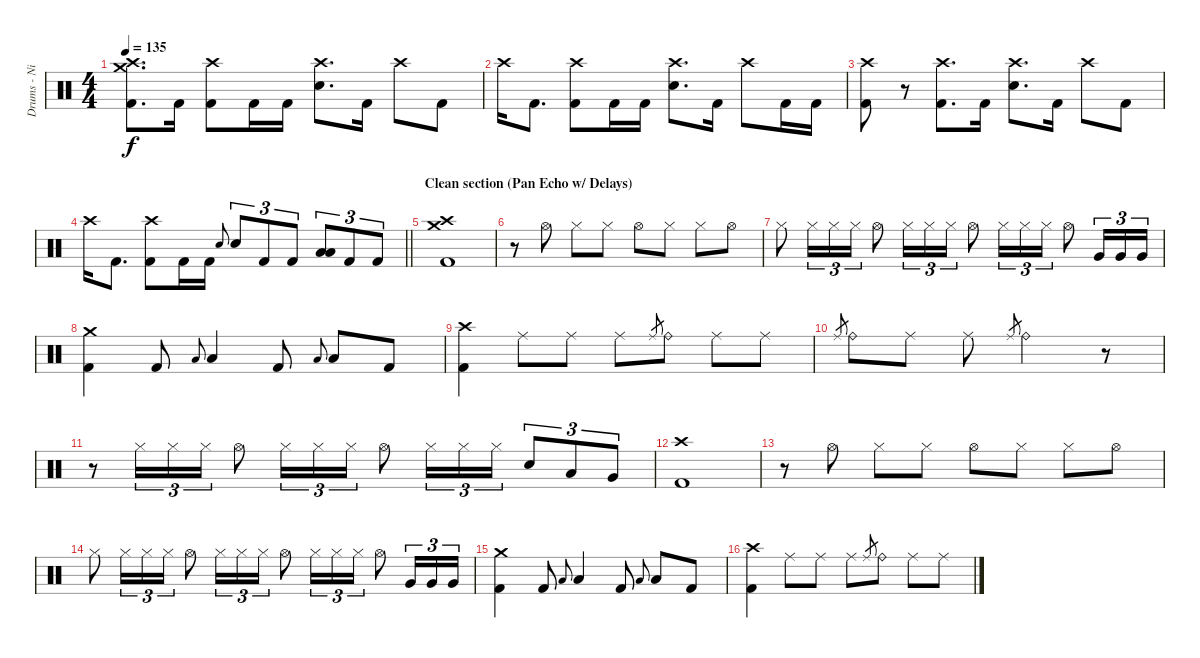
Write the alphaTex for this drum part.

\track ("Drums - Nic" "Drums - Ni") {instrument percussion}
\staff {score}
\articulation defaults
\ts (4 4)
\tempo 135
\clef neutral
\ks c
("Crash high (hit)" "Crash medium (hit)" "Kick (hit) 2").8{d dy f} "Kick (hit) 2".16 ("Crash high (hit)" "Kick (hit) 2").8 "Kick (hit) 2".16 "Kick (hit) 2".16 ("Crash high (hit)" "Electric Snare (hit)").8{d} "Kick (hit) 2".16 "Crash high (hit)".8 "Kick (hit) 2".8 |
"Crash high (hit)".16 "Kick (hit) 2".8{d} ("Crash high (hit)" "Kick (hit) 2").8 "Kick (hit) 2".16 "Kick (hit) 2".16 ("Crash high (hit)" "Electric Snare (hit)").8{d} "Kick (hit) 2".16 "Crash high (hit)".8 "Kick (hit) 2".16 "Kick (hit) 2".16 |
("Crash high (hit)" "Kick (hit) 2").8 r.8{volume 0} ("Crash high (hit)" "Kick (hit) 2").8{d volume 16} "Kick (hit) 2".16 ("Crash high (hit)" "Electric Snare (hit)").8{d} "Kick (hit) 2".16 "Crash high (hit)".8 "Kick (hit) 2".8 |
\barLineRight lightlight "Crash high (hit)".16 "Kick (hit) 2".8{d}
("Crash high (hit)" "Kick (hit) 2").8 "Kick (hit) 2".16 "Kick (hit) 2".16 "Electric Snare (hit)".8{gr onbeat} "Electric Snare (hit)".8{tu (3 2)} "Kick (hit) 2".8{tu (3 2)} "Kick (hit) 2".8{tu (3 2)} ("Low Tom (hit)" "Low Floor Tom (hit)").8{tu (3 2)} "Kick (hit) 2".8{tu (3 2)} "Kick (hit) 2".8{tu (3 2)} |
\section ("" "Clean section (Pan Echo w/ Delays)")
("Crash medium (hit)" "Crash high (hit)" "Kick (hit) 2").1 |
r.8 "Hi-Hat (open)".8 "Hi-Hat (closed)".8 "Hi-Hat (closed)".8 "Hi-Hat (open)".8 "Hi-Hat (closed)".8 "Hi-Hat (closed)".8 "Hi-Hat (open)".8 |
"Hi-Hat (closed)".8 "Hi-Hat (closed)".16{tu (3 2)} "Hi-Hat (closed)".16{tu (3 2)} "Hi-Hat (closed)".16{tu (3 2)} "Hi-Hat (open)".8 "Hi-Hat (closed)".16{tu (3 2)} "Hi-Hat (closed)".16{tu (3 2)} "Hi-Hat (closed)".16{tu (3 2)} "Hi-Hat (open)".8 "Hi-Hat (closed)".16{tu (3 2)} "Hi-Hat (closed)".16{tu (3 2)} "Hi-Hat (closed)".16{tu (3 2)} "Hi-Hat (open)".8 "Very Low Tom (hit)".16{tu (3 2)} "Very Low Tom (hit)".16{tu (3 2)} "Very Low Tom (hit)".16{tu (3 2)} |
("Crash medium (hit)" "Kick (hit) 2").4 "Kick (hit) 2".8 "Low Tom (hit)".8{gr onbeat} "Low Tom (hit)".4 "Kick (hit) 2".8 "Low Floor Tom (hit)".8{gr onbeat} "Low Floor Tom (hit)".8 "Kick (hit) 2".8 |
("Crash high (hit)" "Kick (hit) 2").4 "Ride (middle)".8 "Ride (middle)".8 "Ride (middle)".8 "Ride (middle)".8{gr} "Ride (bell)".8 "Ride (middle)".8 "Ride (middle)".8 |
"Ride (middle)".8{gr} "Ride (bell)".8 "Ride (middle)".8 "Ride (middle)".8 "Ride (middle)".8{gr} "Ride (bell)".2 r.8 |
r.8 "Hi-Hat (closed)".16{tu (3 2)} "Hi-Hat (closed)".16{tu (3 2)} "Hi-Hat (closed)".16{tu (3 2)} "Hi-Hat (open)".8 "Hi-Hat (closed)".16{tu (3 2)} "Hi-Hat (closed)".16{tu (3 2)} "Hi-Hat (closed)".16{tu (3 2)} "Hi-Hat (open)".8 "Hi-Hat (closed)".16{tu (3 2)} "Hi-Hat (closed)".16{tu (3 2)} "Hi-Hat (closed)".16{tu (3 2)} "Electric Snare (hit)".8{tu (3 2)} "Low Tom (hit)".8{tu (3 2)} "Very Low Tom (hit)".8{tu (3 2)} |
("Crash high (hit)" "Kick (hit) 2").1 |
r.8 "Hi-Hat (open)".8 "Hi-Hat (closed)".8 "Hi-Hat (closed)".8 "Hi-Hat (open)".8 "Hi-Hat (closed)".8 "Hi-Hat (closed)".8 "Hi-Hat (open)".8 |
"Hi-Hat (closed)".8 "Hi-Hat (closed)".16{tu (3 2)} "Hi-Hat (closed)".16{tu (3 2)} "Hi-Hat (closed)".16{tu (3 2)} "Hi-Hat (open)".8 "Hi-Hat (closed)".16{tu (3 2)} "Hi-Hat (closed)".16{tu (3 2)} "Hi-Hat (closed)".16{tu (3 2)} "Hi-Hat (open)".8 "Hi-Hat (closed)".16{tu (3 2)} "Hi-Hat (closed)".16{tu (3 2)} "Hi-Hat (closed)".16{tu (3 2)} "Hi-Hat (open)".8 "Very Low Tom (hit)".16{tu (3 2)} "Very Low Tom (hit)".16{tu (3 2)} "Very Low Tom (hit)".16{tu (3 2)} |
("Crash medium (hit)" "Kick (hit) 2").4 "Kick (hit) 2".8 "Low Tom (hit)".8{gr onbeat} "Low Tom (hit)".4 "Kick (hit) 2".8 "Low Floor Tom (hit)".8{gr onbeat} "Low Floor Tom (hit)".8 "Kick (hit) 2".8 |
("Crash high (hit)" "Kick (hit) 2").4 "Ride (middle)".8 "Ride (middle)".8 "Ride (middle)".8 "Ride (middle)".8{gr} "Ride (bell)".8 "Ride (middle)".8 "Ride (middle)".8
